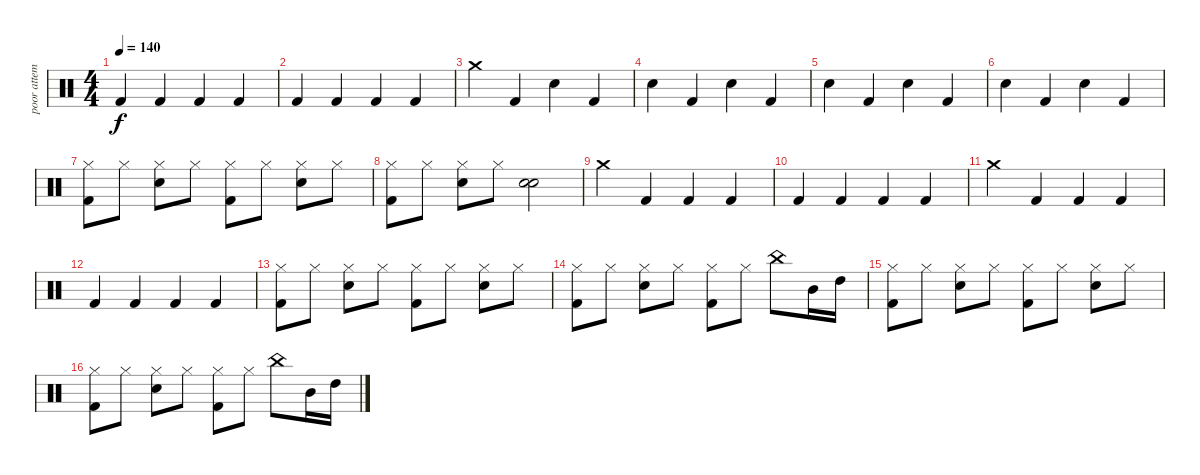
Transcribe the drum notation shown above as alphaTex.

\track ("poor attempt at zac's part" "poor attem") {instrument percussion}
\staff {score}
\articulation defaults
\ts (4 4)
\tempo 140
\clef neutral
\ks c "Kick (hit) 2".4{dy f} "Kick (hit) 2".4 "Kick (hit) 2".4 "Kick (hit) 2".4
|
"Kick (hit) 2".4 "Kick (hit) 2".4 "Kick (hit) 2".4 "Kick (hit) 2".4 |
"Crash medium (hit)".4 "Kick (hit) 2".4 "Snare (hit) 2".4 "Kick (hit) 2".4 |
"Snare (hit) 2".4 "Kick (hit) 2".4 "Snare (hit) 2".4 "Kick (hit) 2".4 |
"Snare (hit) 2".4 "Kick (hit) 2".4 "Snare (hit) 2".4 "Kick (hit) 2".4 |
"Snare (hit) 2".4 "Kick (hit) 2".4 "Snare (hit) 2".4 "Kick (hit) 2".4 |
("Kick (hit) 2" "Hi-Hat (closed)").8 "Hi-Hat (closed)".8 ("Snare (hit) 2" "Hi-Hat (closed)").8 "Hi-Hat (closed)".8 ("Kick (hit) 2" "Hi-Hat (closed)").8 "Hi-Hat (closed)".8 ("Snare (hit) 2" "Hi-Hat (closed)").8 "Hi-Hat (closed)".8 |
("Kick (hit) 2" "Hi-Hat (closed)").8 "Hi-Hat (closed)".8 ("Snare (hit) 2" "Hi-Hat (closed)").8 "Hi-Hat (closed)".8 ("Snare (hit) 2" "Snare (hit) 2").2 |
"Crash medium (hit)".4 "Kick (hit) 2".4 "Kick (hit) 2".4 "Kick (hit) 2".4 |
"Kick (hit) 2".4 "Kick (hit) 2".4 "Kick (hit) 2".4 "Kick (hit) 2".4 |
"Crash medium (hit)".4 "Kick (hit) 2".4 "Kick (hit) 2".4 "Kick (hit) 2".4 |
"Kick (hit) 2".4 "Kick (hit) 2".4 "Kick (hit) 2".4 "Kick (hit) 2".4 |
("Kick (hit) 2" "Hi-Hat (closed)").8 "Hi-Hat (closed)".8 ("Snare (hit) 2" "Hi-Hat (closed)").8 "Hi-Hat (closed)".8 ("Kick (hit) 2" "Hi-Hat (closed)").8 "Hi-Hat (closed)".8 ("Snare (hit) 2" "Hi-Hat (closed)").8 "Hi-Hat (closed)".8 |
("Kick (hit) 2" "Hi-Hat (closed)").8 "Hi-Hat (closed)".8 ("Snare (hit) 2" "Hi-Hat (closed)").8 "Hi-Hat (closed)".8 ("Kick (hit) 2" "Hi-Hat (closed)").8 "Hi-Hat (closed)".8 "China (hit)".8 "Mid Tom (hit)".16 "High Tom (hit)".16 |
("Kick (hit) 2" "Hi-Hat (closed)").8 "Hi-Hat (closed)".8 ("Snare (hit) 2" "Hi-Hat (closed)").8 "Hi-Hat (closed)".8 ("Kick (hit) 2" "Hi-Hat (closed)").8 "Hi-Hat (closed)".8 ("Snare (hit) 2" "Hi-Hat (closed)").8 "Hi-Hat (closed)".8 |
("Kick (hit) 2" "Hi-Hat (closed)").8 "Hi-Hat (closed)".8 ("Snare (hit) 2" "Hi-Hat (closed)").8 "Hi-Hat (closed)".8 ("Kick (hit) 2" "Hi-Hat (closed)").8 "Hi-Hat (closed)".8 "China (hit)".8 "Mid Tom (hit)".16 "High Tom (hit)".16
